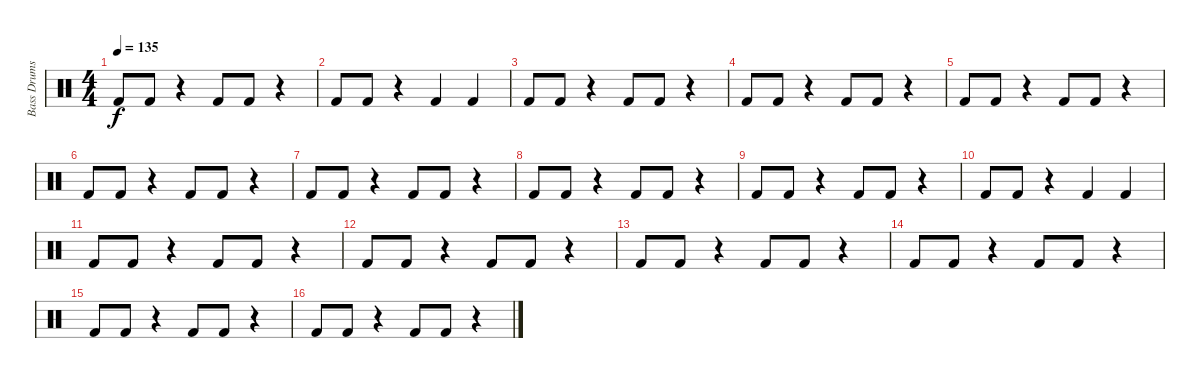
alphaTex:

\track ("Bass Drums" "Bass Drums") {instrument percussion}
\staff {score}
\articulation defaults
\ts (4 4)
\tempo 135
\clef neutral
\ks c "Kick (hit) 2".8{dy f} "Kick (hit) 2".8
r.4 "Kick (hit) 2".8 "Kick (hit) 2".8 r.4 |
"Kick (hit) 2".8 "Kick (hit) 2".8 r.4 "Kick (hit) 2".4 "Kick (hit) 2".4 |
"Kick (hit) 2".8 "Kick (hit) 2".8 r.4 "Kick (hit) 2".8 "Kick (hit) 2".8 r.4 |
"Kick (hit) 2".8 "Kick (hit) 2".8 r.4 "Kick (hit) 2".8 "Kick (hit) 2".8 r.4 |
"Kick (hit) 2".8 "Kick (hit) 2".8 r.4 "Kick (hit) 2".8 "Kick (hit) 2".8 r.4 |
"Kick (hit) 2".8 "Kick (hit) 2".8 r.4 "Kick (hit) 2".8 "Kick (hit) 2".8 r.4 |
"Kick (hit) 2".8 "Kick (hit) 2".8 r.4 "Kick (hit) 2".8 "Kick (hit) 2".8 r.4 |
"Kick (hit) 2".8 "Kick (hit) 2".8 r.4 "Kick (hit) 2".8 "Kick (hit) 2".8 r.4 |
"Kick (hit) 2".8 "Kick (hit) 2".8 r.4 "Kick (hit) 2".8 "Kick (hit) 2".8 r.4 |
"Kick (hit) 2".8 "Kick (hit) 2".8 r.4 "Kick (hit) 2".4 "Kick (hit) 2".4 |
"Kick (hit) 2".8 "Kick (hit) 2".8 r.4 "Kick (hit) 2".8 "Kick (hit) 2".8 r.4 |
"Kick (hit) 2".8 "Kick (hit) 2".8 r.4 "Kick (hit) 2".8 "Kick (hit) 2".8 r.4 |
"Kick (hit) 2".8 "Kick (hit) 2".8 r.4 "Kick (hit) 2".8 "Kick (hit) 2".8 r.4 |
"Kick (hit) 2".8 "Kick (hit) 2".8 r.4 "Kick (hit) 2".8 "Kick (hit) 2".8 r.4 |
"Kick (hit) 2".8 "Kick (hit) 2".8 r.4 "Kick (hit) 2".8 "Kick (hit) 2".8 r.4 |
"Kick (hit) 2".8 "Kick (hit) 2".8 r.4 "Kick (hit) 2".8 "Kick (hit) 2".8 r.4
